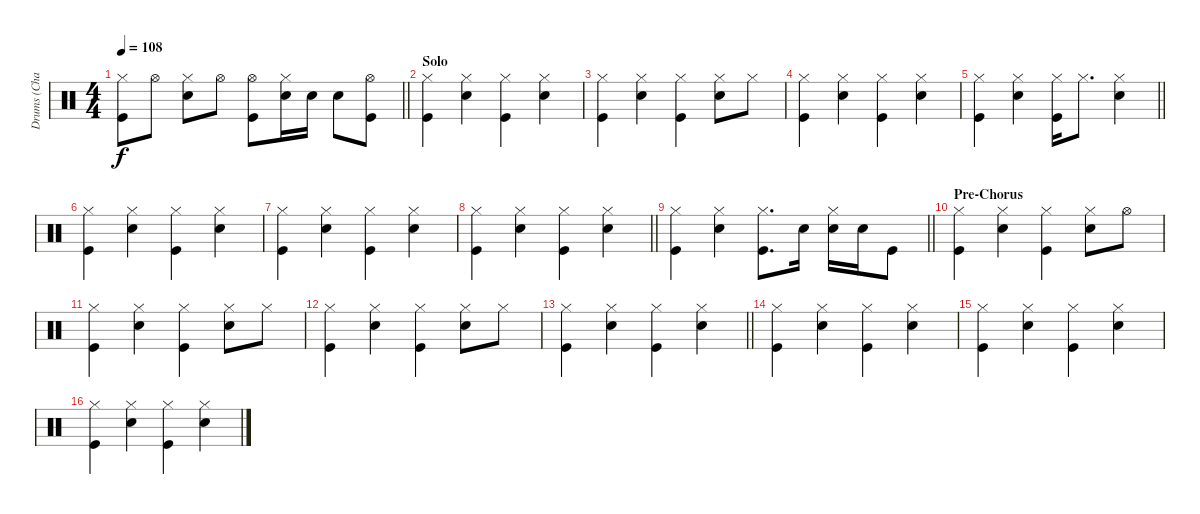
\track ("Drums (Chad Smith)" "Drums (Cha") {instrument percussion}
\staff {score}
\articulation defaults
\ts (4 4)
\tempo 108
\clef neutral
\barLineRight lightlight
\ks c
("Hi-Hat (closed)" "Kick (hit)").8{dy f} "Hi-Hat (open)".8 ("Hi-Hat (closed)" "Snare (hit) 2").8 "Hi-Hat (open)".8 ("Hi-Hat (open)" "Kick (hit)").8 ("Hi-Hat (closed)" "Snare (hit) 2").16 "Snare (hit) 2".16 "Snare (hit) 2".8 ("Hi-Hat (open)" "Kick (hit)").8 |
\section ("" "Solo")
("Hi-Hat (closed)" "Kick (hit)").4 ("Hi-Hat (closed)" "Snare (hit) 2").4 ("Hi-Hat (closed)" "Kick (hit)").4 ("Hi-Hat (closed)" "Snare (hit) 2").4 |
("Hi-Hat (closed)" "Kick (hit)").4 ("Hi-Hat (closed)" "Snare (hit) 2").4 ("Hi-Hat (closed)" "Kick (hit)").4 ("Hi-Hat (closed)" "Snare (hit) 2").8 "Hi-Hat (closed)".8 |
("Hi-Hat (closed)" "Kick (hit)").4 ("Hi-Hat (closed)" "Snare (hit) 2").4 ("Hi-Hat (closed)" "Kick (hit)").4 ("Hi-Hat (closed)" "Snare (hit) 2").4 |
\barLineRight lightlight
("Hi-Hat (closed)" "Kick (hit)").4 ("Hi-Hat (closed)" "Snare (hit) 2").4 ("Hi-Hat (closed)" "Kick (hit)").16 "Hi-Hat (closed)".8{d} ("Hi-Hat (closed)" "Snare (hit) 2").4 |
("Hi-Hat (closed)" "Kick (hit)").4 ("Hi-Hat (closed)" "Snare (hit) 2").4 ("Hi-Hat (closed)" "Kick (hit)").4 ("Hi-Hat (closed)" "Snare (hit) 2").4 |
("Hi-Hat (closed)" "Kick (hit)").4 ("Hi-Hat (closed)" "Snare (hit) 2").4 ("Hi-Hat (closed)" "Kick (hit)").4 ("Hi-Hat (closed)" "Snare (hit) 2").4 |
\barLineRight lightlight
("Hi-Hat (closed)" "Kick (hit)").4 ("Hi-Hat (closed)" "Snare (hit) 2").4 ("Hi-Hat (closed)" "Kick (hit)").4 ("Hi-Hat (closed)" "Snare (hit) 2").4 |
\barLineRight lightlight
("Hi-Hat (closed)" "Kick (hit)").4 ("Hi-Hat (closed)" "Snare (hit) 2").4 ("Hi-Hat (closed)" "Kick (hit)").8{d} "Snare (hit) 2".16 ("Hi-Hat (closed)" "Snare (hit) 2").16 "Snare (hit) 2".16 "Kick (hit)".8 |
\section ("" "Pre-Chorus")
("Hi-Hat (closed)" "Kick (hit)").4 ("Hi-Hat (closed)" "Snare (hit) 2").4 ("Hi-Hat (closed)" "Kick (hit)").4 ("Hi-Hat (closed)" "Snare (hit) 2").8 "Hi-Hat (open)".8 |
("Hi-Hat (closed)" "Kick (hit)").4 ("Hi-Hat (closed)" "Snare (hit) 2").4 ("Hi-Hat (closed)" "Kick (hit)").4 ("Hi-Hat (closed)" "Snare (hit) 2").8 "Hi-Hat (closed)".8 |
("Hi-Hat (closed)" "Kick (hit)").4 ("Hi-Hat (closed)" "Snare (hit) 2").4 ("Hi-Hat (closed)" "Kick (hit)").4 ("Hi-Hat (closed)" "Snare (hit) 2").8 "Hi-Hat (closed)".8 |
\barLineRight lightlight
("Hi-Hat (closed)" "Kick (hit)").4 ("Hi-Hat (closed)" "Snare (hit) 2").4 ("Hi-Hat (closed)" "Kick (hit)").4 ("Hi-Hat (closed)" "Snare (hit) 2").4 |
("Hi-Hat (closed)" "Kick (hit)").4 ("Hi-Hat (closed)" "Snare (hit) 2").4 ("Hi-Hat (closed)" "Kick (hit)").4 ("Hi-Hat (closed)" "Snare (hit) 2").4 |
("Hi-Hat (closed)" "Kick (hit)").4 ("Hi-Hat (closed)" "Snare (hit) 2").4 ("Hi-Hat (closed)" "Kick (hit)").4 ("Hi-Hat (closed)" "Snare (hit) 2").4 |
("Hi-Hat (closed)" "Kick (hit)").4 ("Hi-Hat (closed)" "Snare (hit) 2").4 ("Hi-Hat (closed)" "Kick (hit)").4 ("Hi-Hat (closed)" "Snare (hit) 2").4
